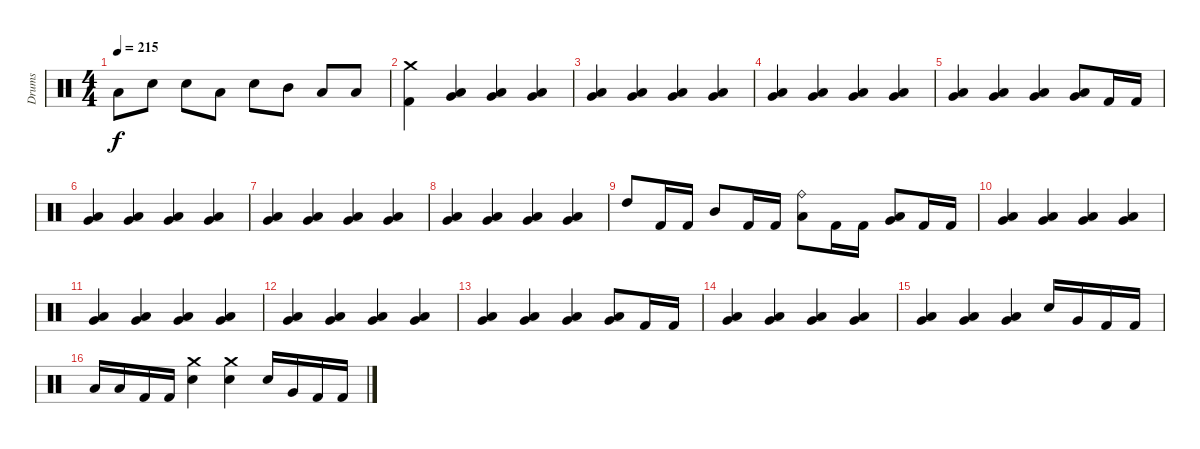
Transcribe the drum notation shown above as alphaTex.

\track ("Drums" "Drums") {instrument percussion}
\staff {score}
\articulation defaults
\ts (4 4)
\tempo 215
\clef neutral
\ks c "Low Tom (hit)".8{dy f} "Electric Snare (hit)".8 "Electric Snare (hit)".8 "Low Tom (hit)".8 "Electric Snare (hit)".8 "Mid Tom (hit)".8 "Low Tom (hit)".8 "Low Floor Tom (hit)".8
|
("Kick (hit) 2" "Crash medium (hit)").4 ("Very Low Tom (hit)" "Low Floor Tom (hit)").4 ("Very Low Tom (hit)" "Low Floor Tom (hit)").4 ("Very Low Tom (hit)" "Low Floor Tom (hit)").4 |
("Very Low Tom (hit)" "Low Floor Tom (hit)").4 ("Very Low Tom (hit)" "Low Floor Tom (hit)").4 ("Very Low Tom (hit)" "Low Floor Tom (hit)").4 ("Very Low Tom (hit)" "Low Floor Tom (hit)").4 |
("Very Low Tom (hit)" "Low Floor Tom (hit)").4 ("Very Low Tom (hit)" "Low Floor Tom (hit)").4 ("Very Low Tom (hit)" "Low Floor Tom (hit)").4 ("Very Low Tom (hit)" "Low Floor Tom (hit)").4 |
("Very Low Tom (hit)" "Low Floor Tom (hit)").4 ("Very Low Tom (hit)" "Low Floor Tom (hit)").4 ("Very Low Tom (hit)" "Low Floor Tom (hit)").4 ("Very Low Tom (hit)" "Low Floor Tom (hit)").8 "Kick (hit) 2".16 "Kick (hit) 2".16 |
("Very Low Tom (hit)" "Low Floor Tom (hit)").4 ("Very Low Tom (hit)" "Low Floor Tom (hit)").4 ("Very Low Tom (hit)" "Low Floor Tom (hit)").4 ("Very Low Tom (hit)" "Low Floor Tom (hit)").4 |
("Very Low Tom (hit)" "Low Floor Tom (hit)").4 ("Very Low Tom (hit)" "Low Floor Tom (hit)").4 ("Very Low Tom (hit)" "Low Floor Tom (hit)").4 ("Very Low Tom (hit)" "Low Floor Tom (hit)").4 |
("Very Low Tom (hit)" "Low Floor Tom (hit)").4 ("Very Low Tom (hit)" "Low Floor Tom (hit)").4 ("Very Low Tom (hit)" "Low Floor Tom (hit)").4 ("Very Low Tom (hit)" "Low Floor Tom (hit)").4 |
"High Tom (hit)".8 "Kick (hit) 2".16 "Kick (hit) 2".16 "Mid Tom (hit)".8 "Kick (hit) 2".16 "Kick (hit) 2".16 ("Low Tom (hit)" "Ride (bell)").8 "Kick (hit) 2".16 "Kick (hit) 2".16 ("Very Low Tom (hit)" "Low Floor Tom (hit)").8 "Kick (hit) 2".16 "Kick (hit) 2".16 |
("Very Low Tom (hit)" "Low Floor Tom (hit)").4 ("Very Low Tom (hit)" "Low Floor Tom (hit)").4 ("Very Low Tom (hit)" "Low Floor Tom (hit)").4 ("Very Low Tom (hit)" "Low Floor Tom (hit)").4 |
("Very Low Tom (hit)" "Low Floor Tom (hit)").4 ("Very Low Tom (hit)" "Low Floor Tom (hit)").4 ("Very Low Tom (hit)" "Low Floor Tom (hit)").4 ("Very Low Tom (hit)" "Low Floor Tom (hit)").4 |
("Very Low Tom (hit)" "Low Floor Tom (hit)").4 ("Very Low Tom (hit)" "Low Floor Tom (hit)").4 ("Very Low Tom (hit)" "Low Floor Tom (hit)").4 ("Very Low Tom (hit)" "Low Floor Tom (hit)").4 |
("Very Low Tom (hit)" "Low Floor Tom (hit)").4 ("Very Low Tom (hit)" "Low Floor Tom (hit)").4 ("Very Low Tom (hit)" "Low Floor Tom (hit)").4 ("Very Low Tom (hit)" "Low Floor Tom (hit)").8 "Kick (hit) 2".16 "Kick (hit) 2".16 |
("Very Low Tom (hit)" "Low Floor Tom (hit)").4 ("Very Low Tom (hit)" "Low Floor Tom (hit)").4 ("Very Low Tom (hit)" "Low Floor Tom (hit)").4 ("Very Low Tom (hit)" "Low Floor Tom (hit)").4 |
("Very Low Tom (hit)" "Low Floor Tom (hit)").4 ("Very Low Tom (hit)" "Low Floor Tom (hit)").4 ("Very Low Tom (hit)" "Low Floor Tom (hit)").4 "Electric Snare (hit)".16 "Very Low Tom (hit)".16 "Kick (hit) 2".16 "Kick (hit) 2".16 |
"Low Tom (hit)".16 "Low Floor Tom (hit)".16 "Kick (hit) 2".16 "Kick (hit) 2".16 ("Electric Snare (hit)" "Crash medium (hit)").4 ("Electric Snare (hit)" "Crash medium (hit)").4 "Electric Snare (hit)".16 "Very Low Tom (hit)".16 "Kick (hit) 2".16 "Kick (hit) 2".16
